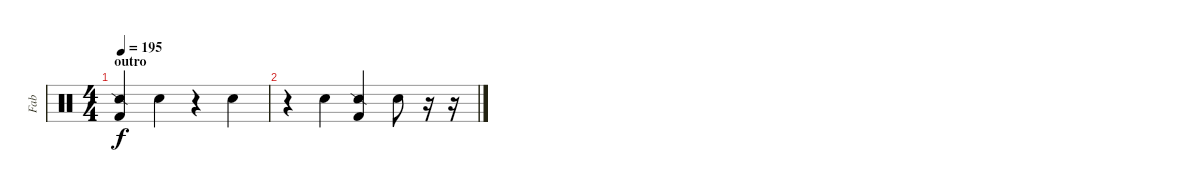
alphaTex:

\track ("Fab" "Fab") {instrument percussion}
\staff {score}
\articulation defaults
\ts (4 4)
\section ("" "outro")
\tempo 195
\clef neutral
\ks c
("Snare (side stick) 2" "Kick (hit) 2").4{dy f} "Electric Snare (hit)".4 r.4 "Electric Snare (hit)".4 |
r.4 "Electric Snare (hit)".4 ("Snare (side stick) 2" "Kick (hit) 2").4 "Electric Snare (hit)".8 r.16 r.16
